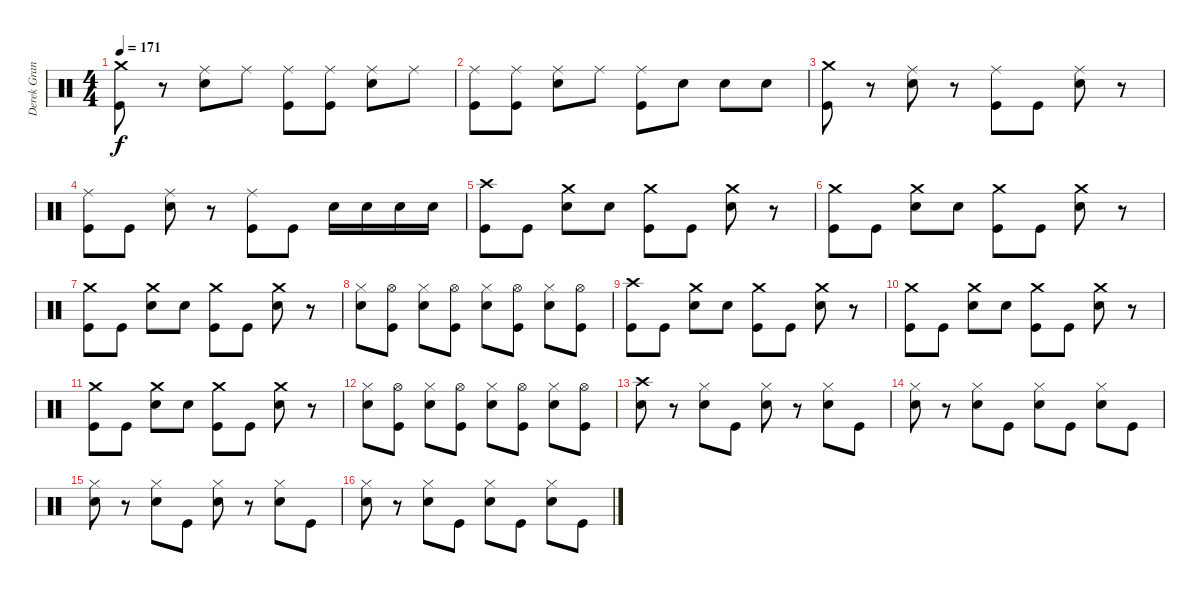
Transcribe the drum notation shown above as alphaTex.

\track ("Derek Grant" "Derek Gran") {instrument percussion}
\staff {score}
\articulation defaults
\ts (4 4)
\tempo 171
\clef neutral
\ks c
("Crash medium (hit)" "Kick (hit)").8{dy f} r.8 ("Ride (middle)" "Electric Snare (hit)").8 "Ride (middle)".8 ("Ride (middle)" "Kick (hit)").8 ("Ride (middle)" "Kick (hit)").8 ("Ride (middle)" "Electric Snare (hit)").8 "Ride (middle)".8 |
("Ride (middle)" "Kick (hit)").8 ("Ride (middle)" "Kick (hit)").8 ("Ride (middle)" "Electric Snare (hit)").8 "Ride (middle)".8 ("Ride (middle)" "Kick (hit)").8 "Electric Snare (hit)".8 "Electric Snare (hit)".8 "Electric Snare (hit)".8 |
("Crash medium (hit)" "Kick (hit)").8 r.8 ("Ride (middle)" "Electric Snare (hit)").8 r.8 ("Ride (middle)" "Kick (hit)").8 "Kick (hit)".8 ("Ride (middle)" "Electric Snare (hit)").8 r.8 |
("Ride (middle)" "Kick (hit)").8 "Kick (hit)".8 ("Ride (middle)" "Electric Snare (hit)").8 r.8 ("Ride (middle)" "Kick (hit)").8 "Kick (hit)".8 "Electric Snare (hit)".16 "Electric Snare (hit)".16 "Electric Snare (hit)".16 "Electric Snare (hit)".16 |
("Crash high (hit)" "Kick (hit)").8 "Kick (hit)".8 ("Crash medium (hit)" "Electric Snare (hit)").8 "Electric Snare (hit)".8 ("Crash medium (hit)" "Kick (hit)").8 "Kick (hit)".8 ("Crash medium (hit)" "Electric Snare (hit)").8 r.8 |
("Crash medium (hit)" "Kick (hit)").8 "Kick (hit)".8 ("Crash medium (hit)" "Electric Snare (hit)").8 "Electric Snare (hit)".8 ("Crash medium (hit)" "Kick (hit)").8 "Kick (hit)".8 ("Crash medium (hit)" "Electric Snare (hit)").8 r.8 |
("Crash medium (hit)" "Kick (hit)").8 "Kick (hit)".8 ("Crash medium (hit)" "Electric Snare (hit)").8 "Electric Snare (hit)".8 ("Crash medium (hit)" "Kick (hit)").8 "Kick (hit)".8 ("Crash medium (hit)" "Electric Snare (hit)").8 r.8 |
("Hi-Hat (closed)" "Electric Snare (hit)").8 ("Hi-Hat (open)" "Kick (hit)").8 ("Hi-Hat (closed)" "Electric Snare (hit)").8 ("Hi-Hat (open)" "Kick (hit)").8 ("Hi-Hat (closed)" "Electric Snare (hit)").8 ("Hi-Hat (open)" "Kick (hit)").8 ("Hi-Hat (closed)" "Electric Snare (hit)").8 ("Hi-Hat (open)" "Kick (hit)").8 |
("Crash high (hit)" "Kick (hit)").8 "Kick (hit)".8 ("Crash medium (hit)" "Electric Snare (hit)").8 "Electric Snare (hit)".8 ("Crash medium (hit)" "Kick (hit)").8 "Kick (hit)".8 ("Crash medium (hit)" "Electric Snare (hit)").8 r.8 |
("Crash medium (hit)" "Kick (hit)").8 "Kick (hit)".8 ("Crash medium (hit)" "Electric Snare (hit)").8 "Electric Snare (hit)".8 ("Crash medium (hit)" "Kick (hit)").8 "Kick (hit)".8 ("Crash medium (hit)" "Electric Snare (hit)").8 r.8 |
("Crash medium (hit)" "Kick (hit)").8 "Kick (hit)".8 ("Crash medium (hit)" "Electric Snare (hit)").8 "Electric Snare (hit)".8 ("Crash medium (hit)" "Kick (hit)").8 "Kick (hit)".8 ("Crash medium (hit)" "Electric Snare (hit)").8 r.8 |
("Hi-Hat (closed)" "Electric Snare (hit)").8 ("Hi-Hat (open)" "Kick (hit)").8 ("Hi-Hat (closed)" "Electric Snare (hit)").8 ("Hi-Hat (open)" "Kick (hit)").8 ("Hi-Hat (closed)" "Electric Snare (hit)").8 ("Hi-Hat (open)" "Kick (hit)").8 ("Hi-Hat (closed)" "Electric Snare (hit)").8 ("Hi-Hat (open)" "Kick (hit)").8 |
("Crash high (hit)" "Electric Snare (hit)").8 r.8 ("Hi-Hat (closed)" "Electric Snare (hit)").8 "Kick (hit)".8 ("Hi-Hat (closed)" "Electric Snare (hit)").8 r.8 ("Hi-Hat (closed)" "Electric Snare (hit)").8 "Kick (hit)".8 |
("Hi-Hat (closed)" "Electric Snare (hit)").8 r.8 ("Hi-Hat (closed)" "Electric Snare (hit)").8 "Kick (hit)".8 ("Hi-Hat (closed)" "Electric Snare (hit)").8 "Kick (hit)".8 ("Hi-Hat (closed)" "Electric Snare (hit)").8 "Kick (hit)".8 |
("Hi-Hat (closed)" "Electric Snare (hit)").8 r.8 ("Hi-Hat (closed)" "Electric Snare (hit)").8 "Kick (hit)".8 ("Hi-Hat (closed)" "Electric Snare (hit)").8 r.8 ("Hi-Hat (closed)" "Electric Snare (hit)").8 "Kick (hit)".8 |
("Hi-Hat (closed)" "Electric Snare (hit)").8 r.8 ("Hi-Hat (closed)" "Electric Snare (hit)").8 "Kick (hit)".8 ("Hi-Hat (closed)" "Electric Snare (hit)").8 "Kick (hit)".8 ("Hi-Hat (closed)" "Electric Snare (hit)").8 "Kick (hit)".8
